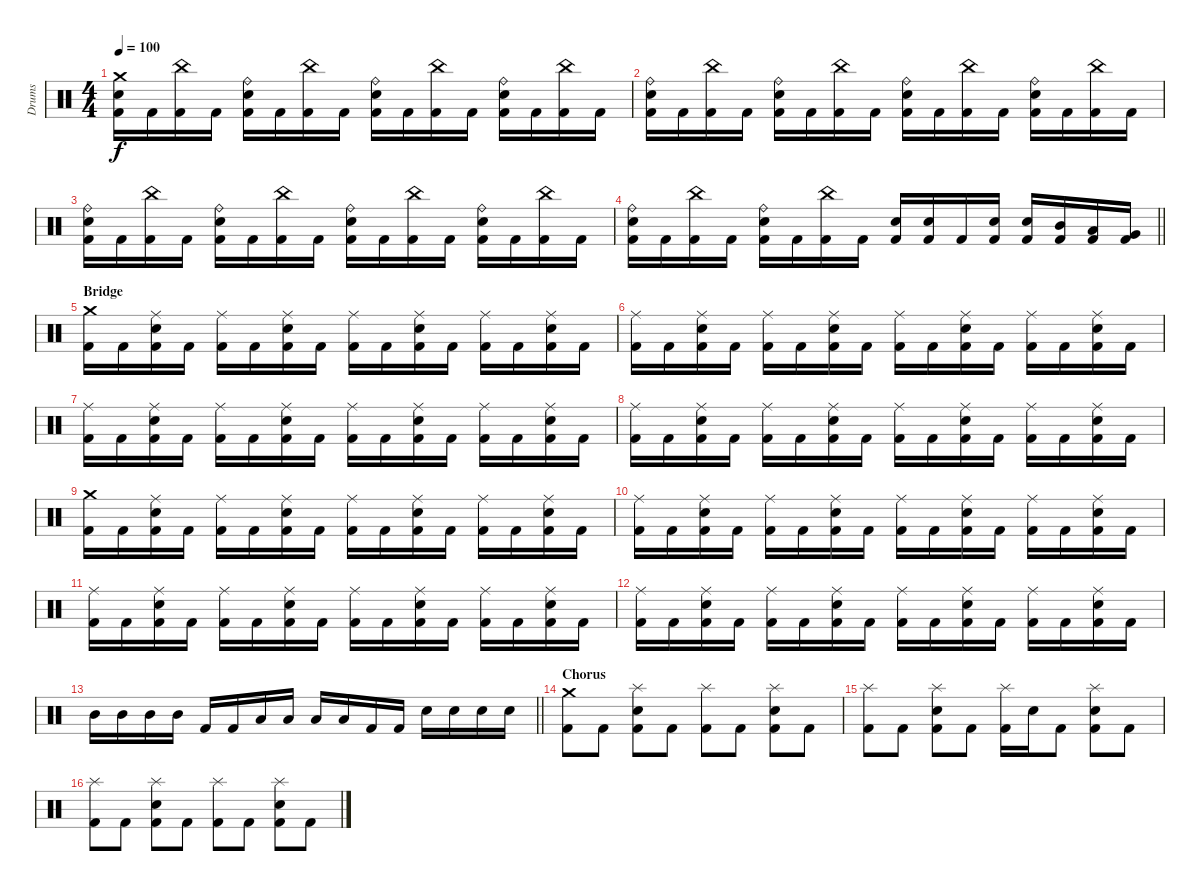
\track ("Drums" "Drums") {instrument percussion}
\staff {score}
\articulation defaults
\ts (4 4)
\tempo 100
\clef neutral
\ks c
("Kick (hit) 2" "Snare (hit) 2" "Crash medium (hit)").16{dy f} "Kick (hit) 2".16 ("Kick (hit) 2" "China (hit)").16 "Kick (hit) 2".16 ("Kick (hit) 2" "Snare (hit) 2" "Ride (bell)").16 "Kick (hit) 2".16 ("Kick (hit) 2" "China (hit)").16 "Kick (hit) 2".16 ("Kick (hit) 2" "Snare (hit) 2" "Ride (bell)").16 "Kick (hit) 2".16 ("Kick (hit) 2" "China (hit)").16 "Kick (hit) 2".16 ("Kick (hit) 2" "Snare (hit) 2" "Ride (bell)").16 "Kick (hit) 2".16 ("Kick (hit) 2" "China (hit)").16 "Kick (hit) 2".16 |
("Kick (hit) 2" "Snare (hit) 2" "Ride (bell)").16 "Kick (hit) 2".16 ("Kick (hit) 2" "China (hit)").16 "Kick (hit) 2".16 ("Kick (hit) 2" "Snare (hit) 2" "Ride (bell)").16 "Kick (hit) 2".16 ("Kick (hit) 2" "China (hit)").16 "Kick (hit) 2".16 ("Kick (hit) 2" "Snare (hit) 2" "Ride (bell)").16 "Kick (hit) 2".16 ("Kick (hit) 2" "China (hit)").16 "Kick (hit) 2".16 ("Kick (hit) 2" "Snare (hit) 2" "Ride (bell)").16 "Kick (hit) 2".16 ("Kick (hit) 2" "China (hit)").16 "Kick (hit) 2".16 |
("Kick (hit) 2" "Snare (hit) 2" "Ride (bell)").16 "Kick (hit) 2".16 ("Kick (hit) 2" "China (hit)").16 "Kick (hit) 2".16 ("Kick (hit) 2" "Snare (hit) 2" "Ride (bell)").16 "Kick (hit) 2".16 ("Kick (hit) 2" "China (hit)").16 "Kick (hit) 2".16 ("Kick (hit) 2" "Snare (hit) 2" "Ride (bell)").16 "Kick (hit) 2".16 ("Kick (hit) 2" "China (hit)").16 "Kick (hit) 2".16 ("Kick (hit) 2" "Snare (hit) 2" "Ride (bell)").16 "Kick (hit) 2".16 ("Kick (hit) 2" "China (hit)").16 "Kick (hit) 2".16 |
\barLineRight lightlight
("Kick (hit) 2" "Snare (hit) 2" "Ride (bell)").16 "Kick (hit) 2".16 ("Kick (hit) 2" "China (hit)").16 "Kick (hit) 2".16 ("Kick (hit) 2" "Snare (hit) 2" "Ride (bell)").16 "Kick (hit) 2".16 ("Kick (hit) 2" "China (hit)").16 "Kick (hit) 2".16 ("Kick (hit) 2" "Snare (hit) 2").16 ("Kick (hit) 2" "Snare (hit) 2").16 "Kick (hit) 2".16 ("Kick (hit) 2" "Snare (hit) 2").16 ("Kick (hit) 2" "Snare (hit) 2").16 ("Kick (hit) 2" "Mid Tom (hit)").16 ("Kick (hit) 2" "Low Tom (hit)").16 ("Kick (hit) 2" "Very Low Tom (hit)").16 |
\section ("" "Bridge")
("Kick (hit) 2" "Crash medium (hit)").16 "Kick (hit) 2".16 ("Kick (hit) 2" "Snare (hit) 2" "Ride (middle)").16 "Kick (hit) 2".16 ("Kick (hit) 2" "Ride (middle)").16 "Kick (hit) 2".16 ("Kick (hit) 2" "Snare (hit) 2" "Ride (middle)").16 "Kick (hit) 2".16 ("Kick (hit) 2" "Ride (middle)").16 "Kick (hit) 2".16 ("Kick (hit) 2" "Snare (hit) 2" "Ride (middle)").16 "Kick (hit) 2".16 ("Kick (hit) 2" "Ride (middle)").16 "Kick (hit) 2".16 ("Kick (hit) 2" "Snare (hit) 2" "Ride (middle)").16 "Kick (hit) 2".16 |
("Kick (hit) 2" "Ride (middle)").16 "Kick (hit) 2".16 ("Kick (hit) 2" "Snare (hit) 2" "Ride (middle)").16 "Kick (hit) 2".16 ("Kick (hit) 2" "Ride (middle)").16 "Kick (hit) 2".16 ("Kick (hit) 2" "Snare (hit) 2" "Ride (middle)").16 "Kick (hit) 2".16 ("Kick (hit) 2" "Ride (middle)").16 "Kick (hit) 2".16 ("Kick (hit) 2" "Snare (hit) 2" "Ride (middle)").16 "Kick (hit) 2".16 ("Kick (hit) 2" "Ride (middle)").16 "Kick (hit) 2".16 ("Kick (hit) 2" "Snare (hit) 2" "Ride (middle)").16 "Kick (hit) 2".16 |
("Kick (hit) 2" "Ride (middle)").16 "Kick (hit) 2".16 ("Kick (hit) 2" "Snare (hit) 2" "Ride (middle)").16 "Kick (hit) 2".16 ("Kick (hit) 2" "Ride (middle)").16 "Kick (hit) 2".16 ("Kick (hit) 2" "Snare (hit) 2" "Ride (middle)").16 "Kick (hit) 2".16 ("Kick (hit) 2" "Ride (middle)").16 "Kick (hit) 2".16 ("Kick (hit) 2" "Snare (hit) 2" "Ride (middle)").16 "Kick (hit) 2".16 ("Kick (hit) 2" "Ride (middle)").16 "Kick (hit) 2".16 ("Kick (hit) 2" "Snare (hit) 2" "Ride (middle)").16 "Kick (hit) 2".16 |
("Kick (hit) 2" "Ride (middle)").16 "Kick (hit) 2".16 ("Kick (hit) 2" "Snare (hit) 2" "Ride (middle)").16 "Kick (hit) 2".16 ("Kick (hit) 2" "Ride (middle)").16 "Kick (hit) 2".16 ("Kick (hit) 2" "Snare (hit) 2" "Ride (middle)").16 "Kick (hit) 2".16 ("Kick (hit) 2" "Ride (middle)").16 "Kick (hit) 2".16 ("Kick (hit) 2" "Snare (hit) 2" "Ride (middle)").16 "Kick (hit) 2".16 ("Kick (hit) 2" "Ride (middle)").16 "Kick (hit) 2".16 ("Kick (hit) 2" "Snare (hit) 2" "Ride (middle)").16 "Kick (hit) 2".16 |
("Kick (hit) 2" "Crash medium (hit)").16 "Kick (hit) 2".16 ("Kick (hit) 2" "Snare (hit) 2" "Ride (middle)").16 "Kick (hit) 2".16 ("Kick (hit) 2" "Ride (middle)").16 "Kick (hit) 2".16 ("Kick (hit) 2" "Snare (hit) 2" "Ride (middle)").16 "Kick (hit) 2".16 ("Kick (hit) 2" "Ride (middle)").16 "Kick (hit) 2".16 ("Kick (hit) 2" "Snare (hit) 2" "Ride (middle)").16 "Kick (hit) 2".16 ("Kick (hit) 2" "Ride (middle)").16 "Kick (hit) 2".16 ("Kick (hit) 2" "Snare (hit) 2" "Ride (middle)").16 "Kick (hit) 2".16 |
("Kick (hit) 2" "Ride (middle)").16 "Kick (hit) 2".16 ("Kick (hit) 2" "Snare (hit) 2" "Ride (middle)").16 "Kick (hit) 2".16 ("Kick (hit) 2" "Ride (middle)").16 "Kick (hit) 2".16 ("Kick (hit) 2" "Snare (hit) 2" "Ride (middle)").16 "Kick (hit) 2".16 ("Kick (hit) 2" "Ride (middle)").16 "Kick (hit) 2".16 ("Kick (hit) 2" "Snare (hit) 2" "Ride (middle)").16 "Kick (hit) 2".16 ("Kick (hit) 2" "Ride (middle)").16 "Kick (hit) 2".16 ("Kick (hit) 2" "Snare (hit) 2" "Ride (middle)").16 "Kick (hit) 2".16 |
("Kick (hit) 2" "Ride (middle)").16 "Kick (hit) 2".16 ("Kick (hit) 2" "Snare (hit) 2" "Ride (middle)").16 "Kick (hit) 2".16 ("Kick (hit) 2" "Ride (middle)").16 "Kick (hit) 2".16 ("Kick (hit) 2" "Snare (hit) 2" "Ride (middle)").16 "Kick (hit) 2".16 ("Kick (hit) 2" "Ride (middle)").16 "Kick (hit) 2".16 ("Kick (hit) 2" "Snare (hit) 2" "Ride (middle)").16 "Kick (hit) 2".16 ("Kick (hit) 2" "Ride (middle)").16 "Kick (hit) 2".16 ("Kick (hit) 2" "Snare (hit) 2" "Ride (middle)").16 "Kick (hit) 2".16 |
("Kick (hit) 2" "Ride (middle)").16 "Kick (hit) 2".16 ("Kick (hit) 2" "Snare (hit) 2" "Ride (middle)").16 "Kick (hit) 2".16 ("Kick (hit) 2" "Ride (middle)").16 "Kick (hit) 2".16 ("Kick (hit) 2" "Snare (hit) 2" "Ride (middle)").16 "Kick (hit) 2".16 ("Kick (hit) 2" "Ride (middle)").16 "Kick (hit) 2".16 ("Kick (hit) 2" "Snare (hit) 2" "Ride (middle)").16 "Kick (hit) 2".16 ("Kick (hit) 2" "Ride (middle)").16 "Kick (hit) 2".16 ("Kick (hit) 2" "Snare (hit) 2" "Ride (middle)").16 "Kick (hit) 2".16 |
\barLineRight lightlight "Mid Tom (hit)".16 "Mid Tom (hit)".16 "Mid Tom (hit)".16 "Mid Tom (hit)".16 "Kick (hit) 2".16 "Kick (hit) 2".16 "Low Tom (hit)".16 "Low Tom (hit)".16 "Low Tom (hit)".16 "Low Tom (hit)".16 "Kick (hit) 2".16 "Kick (hit) 2".16 "Snare (hit) 2".16 "Snare (hit) 2".16 "Snare (hit) 2".16 "Snare (hit) 2".16
|
\section ("" "Chorus")
("Kick (hit) 2" "Crash medium (hit)").8 "Kick (hit) 2".8 ("Kick (hit) 2" "Snare (hit) 2" "Splash (hit)").8 "Kick (hit) 2".8 ("Kick (hit) 2" "Splash (hit)").8 "Kick (hit) 2".8 ("Kick (hit) 2" "Snare (hit) 2" "Splash (hit)").8 "Kick (hit) 2".8 |
("Kick (hit) 2" "Splash (hit)").8 "Kick (hit) 2".8 ("Kick (hit) 2" "Snare (hit) 2" "Splash (hit)").8 "Kick (hit) 2".8 ("Kick (hit) 2" "Splash (hit)").16 "Snare (hit) 2".16 "Kick (hit) 2".8 ("Kick (hit) 2" "Snare (hit) 2" "Splash (hit)").8 "Kick (hit) 2".8 |
("Kick (hit) 2" "Splash (hit)").8 "Kick (hit) 2".8 ("Kick (hit) 2" "Snare (hit) 2" "Splash (hit)").8 "Kick (hit) 2".8 ("Kick (hit) 2" "Splash (hit)").8 "Kick (hit) 2".8 ("Kick (hit) 2" "Snare (hit) 2" "Splash (hit)").8 "Kick (hit) 2".8
